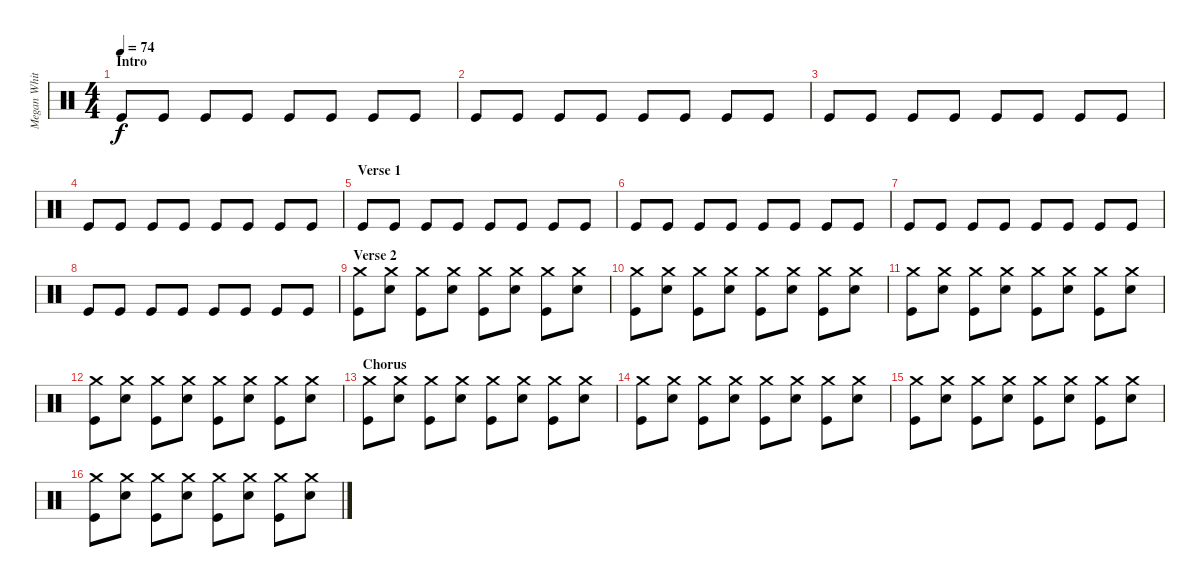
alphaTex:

\track ("Megan White" "Megan Whit") {instrument percussion}
\staff {score}
\articulation defaults
\ts (4 4)
\section ("" "Intro")
\tempo 74
\clef neutral
\ks c "Kick (hit)".8{dy f} "Kick (hit)".8 "Kick (hit)".8 "Kick (hit)".8 "Kick (hit)".8 "Kick (hit)".8 "Kick (hit)".8 "Kick (hit)".8
|
"Kick (hit)".8 "Kick (hit)".8 "Kick (hit)".8 "Kick (hit)".8 "Kick (hit)".8 "Kick (hit)".8 "Kick (hit)".8 "Kick (hit)".8 |
"Kick (hit)".8 "Kick (hit)".8 "Kick (hit)".8 "Kick (hit)".8 "Kick (hit)".8 "Kick (hit)".8 "Kick (hit)".8 "Kick (hit)".8 |
"Kick (hit)".8 "Kick (hit)".8 "Kick (hit)".8 "Kick (hit)".8 "Kick (hit)".8 "Kick (hit)".8 "Kick (hit)".8 "Kick (hit)".8 |
\section ("" "Verse 1")
"Kick (hit)".8 "Kick (hit)".8 "Kick (hit)".8 "Kick (hit)".8 "Kick (hit)".8 "Kick (hit)".8 "Kick (hit)".8 "Kick (hit)".8 |
"Kick (hit)".8 "Kick (hit)".8 "Kick (hit)".8 "Kick (hit)".8 "Kick (hit)".8 "Kick (hit)".8 "Kick (hit)".8 "Kick (hit)".8 |
"Kick (hit)".8 "Kick (hit)".8 "Kick (hit)".8 "Kick (hit)".8 "Kick (hit)".8 "Kick (hit)".8 "Kick (hit)".8 "Kick (hit)".8 |
"Kick (hit)".8 "Kick (hit)".8 "Kick (hit)".8 "Kick (hit)".8 "Kick (hit)".8 "Kick (hit)".8 "Kick (hit)".8 "Kick (hit)".8 |
\section ("" "Verse 2")
("Crash medium (hit)" "Kick (hit)").8 ("Crash medium (hit)" "Snare (hit) 2").8 ("Crash medium (hit)" "Kick (hit)").8 ("Crash medium (hit)" "Snare (hit) 2").8 ("Crash medium (hit)" "Kick (hit)").8 ("Crash medium (hit)" "Snare (hit) 2").8 ("Crash medium (hit)" "Kick (hit)").8 ("Crash medium (hit)" "Snare (hit) 2").8 |
("Crash medium (hit)" "Kick (hit)").8 ("Crash medium (hit)" "Snare (hit) 2").8 ("Crash medium (hit)" "Kick (hit)").8 ("Crash medium (hit)" "Snare (hit) 2").8 ("Crash medium (hit)" "Kick (hit)").8 ("Crash medium (hit)" "Snare (hit) 2").8 ("Crash medium (hit)" "Kick (hit)").8 ("Crash medium (hit)" "Snare (hit) 2").8 |
("Crash medium (hit)" "Kick (hit)").8 ("Crash medium (hit)" "Snare (hit) 2").8 ("Crash medium (hit)" "Kick (hit)").8 ("Crash medium (hit)" "Snare (hit) 2").8 ("Crash medium (hit)" "Kick (hit)").8 ("Crash medium (hit)" "Snare (hit) 2").8 ("Crash medium (hit)" "Kick (hit)").8 ("Crash medium (hit)" "Snare (hit) 2").8 |
("Crash medium (hit)" "Kick (hit)").8 ("Crash medium (hit)" "Snare (hit) 2").8 ("Crash medium (hit)" "Kick (hit)").8 ("Crash medium (hit)" "Snare (hit) 2").8 ("Crash medium (hit)" "Kick (hit)").8 ("Crash medium (hit)" "Snare (hit) 2").8 ("Crash medium (hit)" "Kick (hit)").8 ("Crash medium (hit)" "Snare (hit) 2").8 |
\section ("" "Chorus")
("Crash medium (hit)" "Kick (hit)").8 ("Crash medium (hit)" "Snare (hit) 2").8 ("Crash medium (hit)" "Kick (hit)").8 ("Crash medium (hit)" "Snare (hit) 2").8 ("Crash medium (hit)" "Kick (hit)").8 ("Crash medium (hit)" "Snare (hit) 2").8 ("Crash medium (hit)" "Kick (hit)").8 ("Crash medium (hit)" "Snare (hit) 2").8 |
("Crash medium (hit)" "Kick (hit)").8 ("Crash medium (hit)" "Snare (hit) 2").8 ("Crash medium (hit)" "Kick (hit)").8 ("Crash medium (hit)" "Snare (hit) 2").8 ("Crash medium (hit)" "Kick (hit)").8 ("Crash medium (hit)" "Snare (hit) 2").8 ("Crash medium (hit)" "Kick (hit)").8 ("Crash medium (hit)" "Snare (hit) 2").8 |
("Crash medium (hit)" "Kick (hit)").8 ("Crash medium (hit)" "Snare (hit) 2").8 ("Crash medium (hit)" "Kick (hit)").8 ("Crash medium (hit)" "Snare (hit) 2").8 ("Crash medium (hit)" "Kick (hit)").8 ("Crash medium (hit)" "Snare (hit) 2").8 ("Crash medium (hit)" "Kick (hit)").8 ("Crash medium (hit)" "Snare (hit) 2").8 |
("Crash medium (hit)" "Kick (hit)").8 ("Crash medium (hit)" "Snare (hit) 2").8 ("Crash medium (hit)" "Kick (hit)").8 ("Crash medium (hit)" "Snare (hit) 2").8 ("Crash medium (hit)" "Kick (hit)").8 ("Crash medium (hit)" "Snare (hit) 2").8 ("Crash medium (hit)" "Kick (hit)").8 ("Crash medium (hit)" "Snare (hit) 2").8
